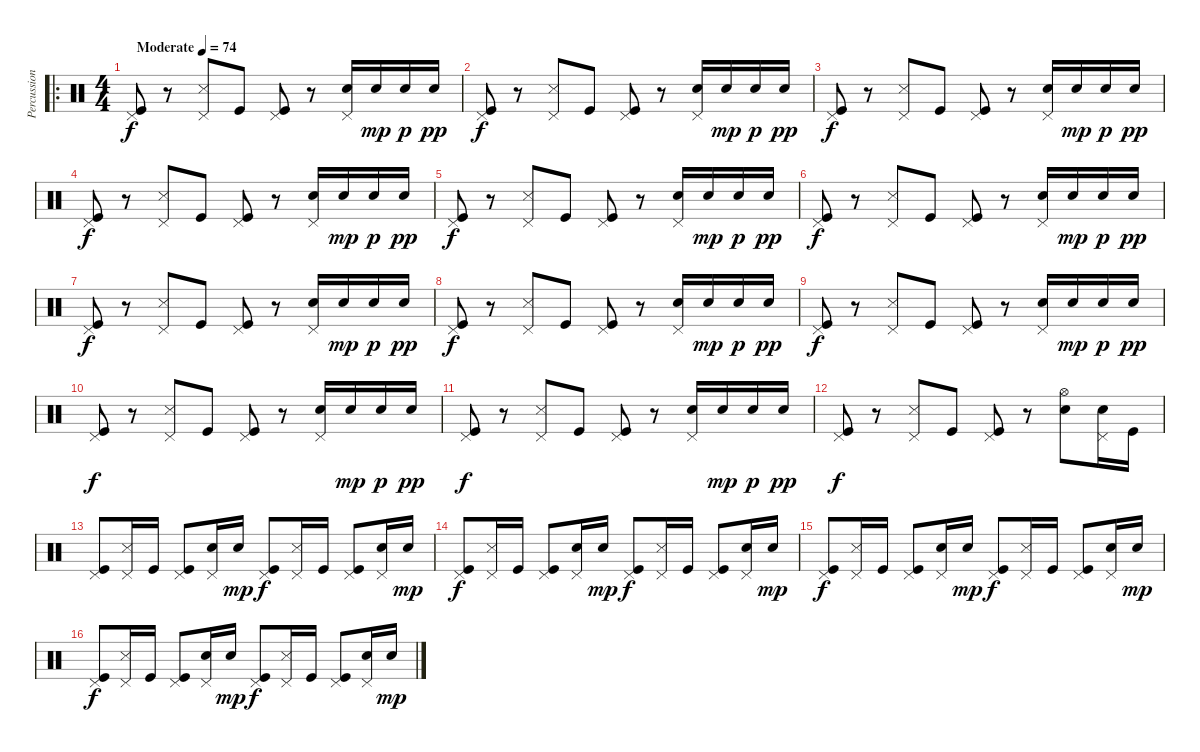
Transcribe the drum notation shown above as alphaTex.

\track ("Percussions" "Percussion") {instrument percussion}
\staff {score}
\articulation defaults
\ro
\ts (4 4)
\tempo (74 "Moderate")
\clef neutral
\ks c
("Kick (hit)" "Pedal Hi-Hat (hit)").8{dy f} r.8 ("Pedal Hi-Hat (hit)" "Snare (side stick) 3").8 "Kick (hit)".8 ("Kick (hit)" "Pedal Hi-Hat (hit)").8 r.8 ("Pedal Hi-Hat (hit)" "Electric Snare (hit)").16 "Electric Snare (hit)".16{dy mp} "Electric Snare (hit)".16{dy p} "Electric Snare (hit)".16{dy pp} |
("Kick (hit)" "Pedal Hi-Hat (hit)").8{dy f} r.8 ("Pedal Hi-Hat (hit)" "Snare (side stick) 3").8 "Kick (hit)".8 ("Kick (hit)" "Pedal Hi-Hat (hit)").8 r.8 ("Pedal Hi-Hat (hit)" "Electric Snare (hit)").16 "Electric Snare (hit)".16{dy mp} "Electric Snare (hit)".16{dy p} "Electric Snare (hit)".16{dy pp} |
("Kick (hit)" "Pedal Hi-Hat (hit)").8{dy f} r.8 ("Pedal Hi-Hat (hit)" "Snare (side stick) 3").8 "Kick (hit)".8 ("Kick (hit)" "Pedal Hi-Hat (hit)").8 r.8 ("Pedal Hi-Hat (hit)" "Electric Snare (hit)").16 "Electric Snare (hit)".16{dy mp} "Electric Snare (hit)".16{dy p} "Electric Snare (hit)".16{dy pp} |
("Kick (hit)" "Pedal Hi-Hat (hit)").8{dy f} r.8 ("Pedal Hi-Hat (hit)" "Snare (side stick) 3").8 "Kick (hit)".8 ("Kick (hit)" "Pedal Hi-Hat (hit)").8 r.8 ("Pedal Hi-Hat (hit)" "Electric Snare (hit)").16 "Electric Snare (hit)".16{dy mp} "Electric Snare (hit)".16{dy p} "Electric Snare (hit)".16{dy pp} |
("Kick (hit)" "Pedal Hi-Hat (hit)").8{dy f} r.8 ("Pedal Hi-Hat (hit)" "Snare (side stick) 3").8 "Kick (hit)".8 ("Kick (hit)" "Pedal Hi-Hat (hit)").8 r.8 ("Pedal Hi-Hat (hit)" "Electric Snare (hit)").16 "Electric Snare (hit)".16{dy mp} "Electric Snare (hit)".16{dy p} "Electric Snare (hit)".16{dy pp} |
("Kick (hit)" "Pedal Hi-Hat (hit)").8{dy f} r.8 ("Pedal Hi-Hat (hit)" "Snare (side stick) 3").8 "Kick (hit)".8 ("Kick (hit)" "Pedal Hi-Hat (hit)").8 r.8 ("Pedal Hi-Hat (hit)" "Electric Snare (hit)").16 "Electric Snare (hit)".16{dy mp} "Electric Snare (hit)".16{dy p} "Electric Snare (hit)".16{dy pp} |
("Kick (hit)" "Pedal Hi-Hat (hit)").8{dy f} r.8 ("Pedal Hi-Hat (hit)" "Snare (side stick) 3").8 "Kick (hit)".8 ("Kick (hit)" "Pedal Hi-Hat (hit)").8 r.8 ("Pedal Hi-Hat (hit)" "Electric Snare (hit)").16 "Electric Snare (hit)".16{dy mp} "Electric Snare (hit)".16{dy p} "Electric Snare (hit)".16{dy pp} |
("Kick (hit)" "Pedal Hi-Hat (hit)").8{dy f} r.8 ("Pedal Hi-Hat (hit)" "Snare (side stick) 3").8 "Kick (hit)".8 ("Kick (hit)" "Pedal Hi-Hat (hit)").8 r.8 ("Pedal Hi-Hat (hit)" "Electric Snare (hit)").16 "Electric Snare (hit)".16{dy mp} "Electric Snare (hit)".16{dy p} "Electric Snare (hit)".16{dy pp} |
("Kick (hit)" "Pedal Hi-Hat (hit)").8{dy f} r.8 ("Pedal Hi-Hat (hit)" "Snare (side stick) 3").8 "Kick (hit)".8 ("Kick (hit)" "Pedal Hi-Hat (hit)").8 r.8 ("Pedal Hi-Hat (hit)" "Electric Snare (hit)").16 "Electric Snare (hit)".16{dy mp} "Electric Snare (hit)".16{dy p} "Electric Snare (hit)".16{dy pp} |
("Kick (hit)" "Pedal Hi-Hat (hit)").8{dy f} r.8 ("Pedal Hi-Hat (hit)" "Snare (side stick) 3").8 "Kick (hit)".8 ("Kick (hit)" "Pedal Hi-Hat (hit)").8 r.8 ("Pedal Hi-Hat (hit)" "Electric Snare (hit)").16 "Electric Snare (hit)".16{dy mp} "Electric Snare (hit)".16{dy p} "Electric Snare (hit)".16{dy pp} |
("Kick (hit)" "Pedal Hi-Hat (hit)").8{dy f} r.8 ("Pedal Hi-Hat (hit)" "Snare (side stick) 3").8 "Kick (hit)".8 ("Kick (hit)" "Pedal Hi-Hat (hit)").8 r.8 ("Pedal Hi-Hat (hit)" "Electric Snare (hit)").16 "Electric Snare (hit)".16{dy mp} "Electric Snare (hit)".16{dy p} "Electric Snare (hit)".16{dy pp} |
("Kick (hit)" "Pedal Hi-Hat (hit)").8{dy f} r.8 ("Pedal Hi-Hat (hit)" "Snare (side stick) 3").8 "Kick (hit)".8 ("Kick (hit)" "Pedal Hi-Hat (hit)").8 r.8 ("Hi-Hat (open)" "Electric Snare (hit)").8 ("Pedal Hi-Hat (hit)" "Electric Snare (hit)").16 "Kick (hit)".16 |
("Kick (hit)" "Pedal Hi-Hat (hit)").8 ("Pedal Hi-Hat (hit)" "Snare (side stick) 3").16 "Kick (hit)".16 ("Kick (hit)" "Pedal Hi-Hat (hit)").8 ("Pedal Hi-Hat (hit)" "Electric Snare (hit)").16 "Electric Snare (hit)".16{dy mp} ("Kick (hit)" "Pedal Hi-Hat (hit)").8{dy f} ("Pedal Hi-Hat (hit)" "Snare (side stick) 3").16 "Kick (hit)".16 ("Kick (hit)" "Pedal Hi-Hat (hit)").8 ("Pedal Hi-Hat (hit)" "Electric Snare (hit)").16 "Electric Snare (hit)".16{dy mp} |
("Kick (hit)" "Pedal Hi-Hat (hit)").8{dy f} ("Pedal Hi-Hat (hit)" "Snare (side stick) 3").16 "Kick (hit)".16 ("Kick (hit)" "Pedal Hi-Hat (hit)").8 ("Pedal Hi-Hat (hit)" "Electric Snare (hit)").16 "Electric Snare (hit)".16{dy mp} ("Kick (hit)" "Pedal Hi-Hat (hit)").8{dy f} ("Pedal Hi-Hat (hit)" "Snare (side stick) 3").16 "Kick (hit)".16 ("Kick (hit)" "Pedal Hi-Hat (hit)").8 ("Pedal Hi-Hat (hit)" "Electric Snare (hit)").16 "Electric Snare (hit)".16{dy mp} |
("Kick (hit)" "Pedal Hi-Hat (hit)").8{dy f} ("Pedal Hi-Hat (hit)" "Snare (side stick) 3").16 "Kick (hit)".16 ("Kick (hit)" "Pedal Hi-Hat (hit)").8 ("Pedal Hi-Hat (hit)" "Electric Snare (hit)").16 "Electric Snare (hit)".16{dy mp} ("Kick (hit)" "Pedal Hi-Hat (hit)").8{dy f} ("Pedal Hi-Hat (hit)" "Snare (side stick) 3").16 "Kick (hit)".16 ("Kick (hit)" "Pedal Hi-Hat (hit)").8 ("Pedal Hi-Hat (hit)" "Electric Snare (hit)").16 "Electric Snare (hit)".16{dy mp} |
("Kick (hit)" "Pedal Hi-Hat (hit)").8{dy f} ("Pedal Hi-Hat (hit)" "Snare (side stick) 3").16 "Kick (hit)".16 ("Kick (hit)" "Pedal Hi-Hat (hit)").8 ("Pedal Hi-Hat (hit)" "Electric Snare (hit)").16 "Electric Snare (hit)".16{dy mp} ("Kick (hit)" "Pedal Hi-Hat (hit)").8{dy f} ("Pedal Hi-Hat (hit)" "Snare (side stick) 3").16 "Kick (hit)".16 ("Kick (hit)" "Pedal Hi-Hat (hit)").8 ("Pedal Hi-Hat (hit)" "Electric Snare (hit)").16 "Electric Snare (hit)".16{dy mp}
